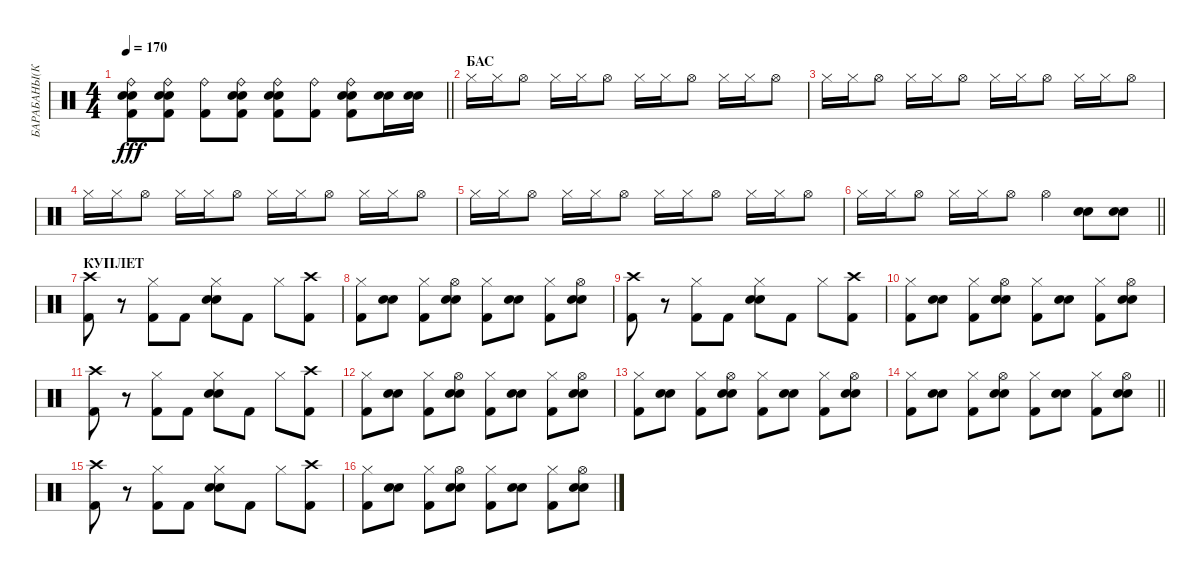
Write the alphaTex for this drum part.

\track ("БАРАБАНЫ(КАРДАН)" "БАРАБАНЫ(К") {instrument percussion}
\staff {score}
\articulation defaults
\ts (4 4)
\tempo 170
\clef neutral
\barLineRight lightlight
\ks c
("Kick (hit) 2" "Electric Snare (hit)" "Snare (hit) 2" "Ride (bell)").8{dy fff} ("Kick (hit) 2" "Electric Snare (hit)" "Snare (hit) 2" "Ride (bell)").8 ("Kick (hit) 2" "Ride (bell)").8 ("Kick (hit) 2" "Electric Snare (hit)" "Snare (hit) 2" "Ride (bell)").8 ("Kick (hit) 2" "Electric Snare (hit)" "Snare (hit) 2" "Ride (bell)").8 ("Kick (hit) 2" "Ride (bell)").8 ("Kick (hit) 2" "Snare (hit) 2" "Electric Snare (hit)" "Ride (bell)").8 ("Electric Snare (hit)" "Snare (hit) 2").16 ("Electric Snare (hit)" "Snare (hit) 2").16 |
\section ("" "БАС")
"Hi-Hat (closed)".16 "Hi-Hat (closed)".16 "Hi-Hat (open)".8 "Hi-Hat (closed)".16 "Hi-Hat (closed)".16 "Hi-Hat (open)".8 "Hi-Hat (closed)".16 "Hi-Hat (closed)".16 "Hi-Hat (open)".8 "Hi-Hat (closed)".16 "Hi-Hat (closed)".16 "Hi-Hat (open)".8 |
"Hi-Hat (closed)".16 "Hi-Hat (closed)".16 "Hi-Hat (open)".8 "Hi-Hat (closed)".16 "Hi-Hat (closed)".16 "Hi-Hat (open)".8 "Hi-Hat (closed)".16 "Hi-Hat (closed)".16 "Hi-Hat (open)".8 "Hi-Hat (closed)".16 "Hi-Hat (closed)".16 "Hi-Hat (open)".8 |
"Hi-Hat (closed)".16 "Hi-Hat (closed)".16 "Hi-Hat (open)".8 "Hi-Hat (closed)".16 "Hi-Hat (closed)".16 "Hi-Hat (open)".8 "Hi-Hat (closed)".16 "Hi-Hat (closed)".16 "Hi-Hat (open)".8 "Hi-Hat (closed)".16 "Hi-Hat (closed)".16 "Hi-Hat (open)".8 |
"Hi-Hat (closed)".16 "Hi-Hat (closed)".16 "Hi-Hat (open)".8 "Hi-Hat (closed)".16 "Hi-Hat (closed)".16 "Hi-Hat (open)".8 "Hi-Hat (closed)".16 "Hi-Hat (closed)".16 "Hi-Hat (open)".8 "Hi-Hat (closed)".16 "Hi-Hat (closed)".16 "Hi-Hat (open)".8 |
\barLineRight lightlight "Hi-Hat (closed)".16 "Hi-Hat (closed)".16 "Hi-Hat (open)".8 "Hi-Hat (closed)".16 "Hi-Hat (closed)".16 "Hi-Hat (open)".8 "Hi-Hat (open)".4
("Electric Snare (hit)" "Snare (hit) 2").8 ("Electric Snare (hit)" "Snare (hit) 2").8 |
\section ("" "КУПЛЕТ")
("Kick (hit) 2" "Crash high (hit)").8 r.8 ("Kick (hit) 2" "Hi-Hat (closed)").8 "Kick (hit) 2".8 ("Snare (hit) 2" "Electric Snare (hit)" "Hi-Hat (closed)").8 "Kick (hit) 2".8 "Hi-Hat (closed)".8 ("Kick (hit) 2" "Crash high (hit)").8 |
("Kick (hit) 2" "Hi-Hat (closed)").8 ("Snare (hit) 2" "Electric Snare (hit)").8 ("Kick (hit) 2" "Hi-Hat (closed)").8 ("Electric Snare (hit)" "Snare (hit) 2" "Hi-Hat (open)").8 ("Kick (hit) 2" "Hi-Hat (closed)").8 ("Snare (hit) 2" "Electric Snare (hit)").8 ("Kick (hit) 2" "Hi-Hat (closed)").8 ("Electric Snare (hit)" "Snare (hit) 2" "Hi-Hat (open)").8 |
("Kick (hit) 2" "Crash high (hit)").8 r.8 ("Kick (hit) 2" "Hi-Hat (closed)").8 "Kick (hit) 2".8 ("Snare (hit) 2" "Electric Snare (hit)" "Hi-Hat (closed)").8 "Kick (hit) 2".8 "Hi-Hat (closed)".8 ("Kick (hit) 2" "Crash high (hit)").8 |
("Kick (hit) 2" "Hi-Hat (closed)").8 ("Snare (hit) 2" "Electric Snare (hit)").8 ("Kick (hit) 2" "Hi-Hat (closed)").8 ("Electric Snare (hit)" "Snare (hit) 2" "Hi-Hat (open)").8 ("Kick (hit) 2" "Hi-Hat (closed)").8 ("Snare (hit) 2" "Electric Snare (hit)").8 ("Kick (hit) 2" "Hi-Hat (closed)").8 ("Electric Snare (hit)" "Snare (hit) 2" "Hi-Hat (open)").8 |
("Kick (hit) 2" "Crash high (hit)").8 r.8 ("Kick (hit) 2" "Hi-Hat (closed)").8 "Kick (hit) 2".8 ("Snare (hit) 2" "Electric Snare (hit)" "Hi-Hat (closed)").8 "Kick (hit) 2".8 "Hi-Hat (closed)".8 ("Kick (hit) 2" "Crash high (hit)").8 |
("Kick (hit) 2" "Hi-Hat (closed)").8 ("Snare (hit) 2" "Electric Snare (hit)").8 ("Kick (hit) 2" "Hi-Hat (closed)").8 ("Electric Snare (hit)" "Snare (hit) 2" "Hi-Hat (open)").8 ("Kick (hit) 2" "Hi-Hat (closed)").8 ("Snare (hit) 2" "Electric Snare (hit)").8 ("Kick (hit) 2" "Hi-Hat (closed)").8 ("Electric Snare (hit)" "Snare (hit) 2" "Hi-Hat (open)").8 |
("Kick (hit) 2" "Hi-Hat (closed)").8 ("Snare (hit) 2" "Electric Snare (hit)").8 ("Kick (hit) 2" "Hi-Hat (closed)").8 ("Electric Snare (hit)" "Snare (hit) 2" "Hi-Hat (open)").8 ("Kick (hit) 2" "Hi-Hat (closed)").8 ("Snare (hit) 2" "Electric Snare (hit)").8 ("Kick (hit) 2" "Hi-Hat (closed)").8 ("Electric Snare (hit)" "Snare (hit) 2" "Hi-Hat (open)").8 |
\barLineRight lightlight
("Kick (hit) 2" "Hi-Hat (closed)").8 ("Snare (hit) 2" "Electric Snare (hit)").8 ("Kick (hit) 2" "Hi-Hat (closed)").8 ("Electric Snare (hit)" "Snare (hit) 2" "Hi-Hat (open)").8 ("Kick (hit) 2" "Hi-Hat (closed)").8 ("Snare (hit) 2" "Electric Snare (hit)").8 ("Kick (hit) 2" "Hi-Hat (closed)").8 ("Electric Snare (hit)" "Snare (hit) 2" "Hi-Hat (open)").8 |
("Kick (hit) 2" "Crash high (hit)").8 r.8 ("Kick (hit) 2" "Hi-Hat (closed)").8 "Kick (hit) 2".8 ("Snare (hit) 2" "Electric Snare (hit)" "Hi-Hat (closed)").8 "Kick (hit) 2".8 "Hi-Hat (closed)".8 ("Kick (hit) 2" "Crash high (hit)").8 |
("Kick (hit) 2" "Hi-Hat (closed)").8 ("Snare (hit) 2" "Electric Snare (hit)").8 ("Kick (hit) 2" "Hi-Hat (closed)").8 ("Electric Snare (hit)" "Snare (hit) 2" "Hi-Hat (open)").8 ("Kick (hit) 2" "Hi-Hat (closed)").8 ("Snare (hit) 2" "Electric Snare (hit)").8 ("Kick (hit) 2" "Hi-Hat (closed)").8 ("Electric Snare (hit)" "Snare (hit) 2" "Hi-Hat (open)").8
